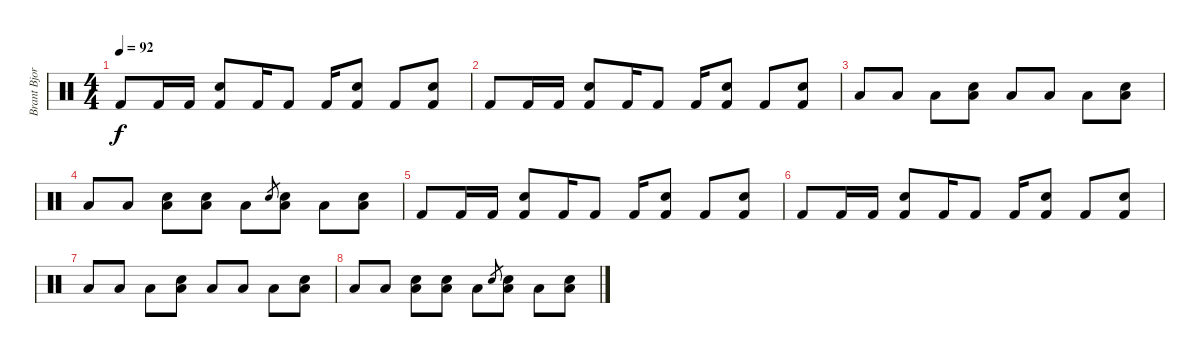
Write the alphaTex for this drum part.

\track ("Brant Bjork" "Brant Bjor") {instrument percussion}
\staff {score}
\articulation defaults
\ts (4 4)
\tempo 92
\clef neutral
\ks c "Kick (hit) 2".8{dy f} "Kick (hit) 2".16 "Kick (hit) 2".16
("Snare (hit) 2" "Kick (hit) 2").8 "Kick (hit) 2".16 "Kick (hit) 2".8 "Kick (hit) 2".16 ("Snare (hit) 2" "Kick (hit) 2").8 "Kick (hit) 2".8 ("Snare (hit) 2" "Kick (hit) 2").8 |
"Kick (hit) 2".8 "Kick (hit) 2".16 "Kick (hit) 2".16 ("Snare (hit) 2" "Kick (hit) 2").8 "Kick (hit) 2".16 "Kick (hit) 2".8 "Kick (hit) 2".16 ("Snare (hit) 2" "Kick (hit) 2").8 "Kick (hit) 2".8 ("Snare (hit) 2" "Kick (hit) 2").8 |
"Low Floor Tom (hit)".8 "Low Floor Tom (hit)".8 "Low Floor Tom (hit)".8 ("Snare (hit) 2" "Low Floor Tom (hit)").8 "Low Floor Tom (hit)".8 "Low Floor Tom (hit)".8 "Low Floor Tom (hit)".8 ("Snare (hit) 2" "Low Floor Tom (hit)").8 |
"Low Floor Tom (hit)".8 "Low Floor Tom (hit)".8 ("Snare (hit) 2" "Low Floor Tom (hit)").8 ("Snare (hit) 2" "Low Floor Tom (hit)").8 "Low Floor Tom (hit)".8 "Snare (hit) 2".8{gr} ("Snare (hit) 2" "Low Floor Tom (hit)").8 "Low Floor Tom (hit)".8 ("Snare (hit) 2" "Low Floor Tom (hit)").8 |
"Kick (hit) 2".8 "Kick (hit) 2".16 "Kick (hit) 2".16 ("Snare (hit) 2" "Kick (hit) 2").8 "Kick (hit) 2".16 "Kick (hit) 2".8 "Kick (hit) 2".16 ("Snare (hit) 2" "Kick (hit) 2").8 "Kick (hit) 2".8 ("Snare (hit) 2" "Kick (hit) 2").8 |
"Kick (hit) 2".8 "Kick (hit) 2".16 "Kick (hit) 2".16 ("Snare (hit) 2" "Kick (hit) 2").8 "Kick (hit) 2".16 "Kick (hit) 2".8 "Kick (hit) 2".16 ("Snare (hit) 2" "Kick (hit) 2").8 "Kick (hit) 2".8 ("Snare (hit) 2" "Kick (hit) 2").8 |
"Low Floor Tom (hit)".8 "Low Floor Tom (hit)".8 "Low Floor Tom (hit)".8 ("Snare (hit) 2" "Low Floor Tom (hit)").8 "Low Floor Tom (hit)".8 "Low Floor Tom (hit)".8 "Low Floor Tom (hit)".8 ("Snare (hit) 2" "Low Floor Tom (hit)").8 |
"Low Floor Tom (hit)".8 "Low Floor Tom (hit)".8 ("Snare (hit) 2" "Low Floor Tom (hit)").8 ("Snare (hit) 2" "Low Floor Tom (hit)").8 "Low Floor Tom (hit)".8 "Snare (hit) 2".8{gr} ("Snare (hit) 2" "Low Floor Tom (hit)").8 "Low Floor Tom (hit)".8 ("Snare (hit) 2" "Low Floor Tom (hit)").8
